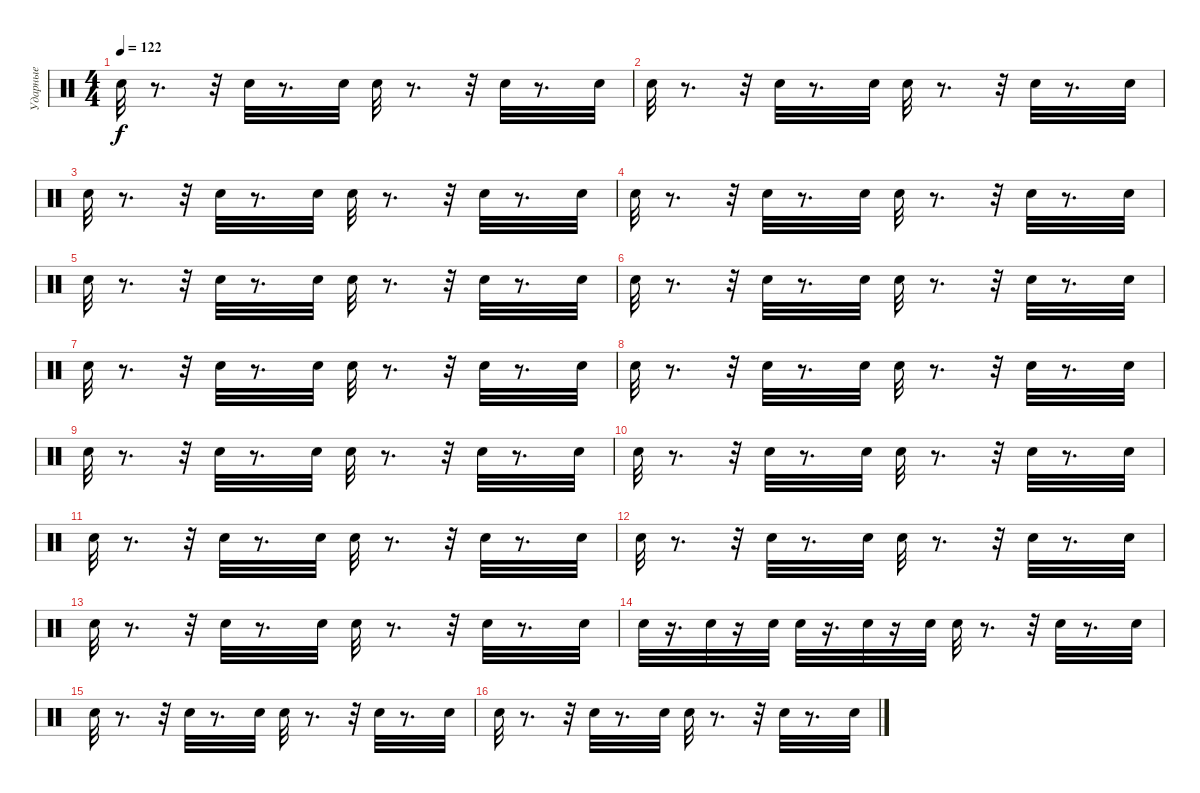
\track ("Ударные" "Ударные") {instrument percussion}
\staff {score}
\articulation defaults
\ts (4 4)
\tempo 122
\clef neutral
\ks c "Snare (hit) 2".32{dy f}
r.8{d} r.32 "Snare (hit) 2".32 r.8{d} "Snare (hit) 2".32 "Snare (hit) 2".32 r.8{d} r.32 "Snare (hit) 2".32 r.8{d} "Snare (hit) 2".32 |
"Snare (hit) 2".32 r.8{d} r.32 "Snare (hit) 2".32 r.8{d} "Snare (hit) 2".32 "Snare (hit) 2".32 r.8{d} r.32 "Snare (hit) 2".32 r.8{d} "Snare (hit) 2".32 |
"Snare (hit) 2".32 r.8{d} r.32 "Snare (hit) 2".32 r.8{d} "Snare (hit) 2".32 "Snare (hit) 2".32 r.8{d} r.32 "Snare (hit) 2".32 r.8{d} "Snare (hit) 2".32 |
"Snare (hit) 2".32 r.8{d} r.32 "Snare (hit) 2".32 r.8{d} "Snare (hit) 2".32 "Snare (hit) 2".32 r.8{d} r.32 "Snare (hit) 2".32 r.8{d} "Snare (hit) 2".32 |
"Snare (hit) 2".32 r.8{d} r.32 "Snare (hit) 2".32 r.8{d} "Snare (hit) 2".32 "Snare (hit) 2".32 r.8{d} r.32 "Snare (hit) 2".32 r.8{d} "Snare (hit) 2".32 |
"Snare (hit) 2".32 r.8{d} r.32 "Snare (hit) 2".32 r.8{d} "Snare (hit) 2".32 "Snare (hit) 2".32 r.8{d} r.32 "Snare (hit) 2".32 r.8{d} "Snare (hit) 2".32 |
"Snare (hit) 2".32 r.8{d} r.32 "Snare (hit) 2".32 r.8{d} "Snare (hit) 2".32 "Snare (hit) 2".32 r.8{d} r.32 "Snare (hit) 2".32 r.8{d} "Snare (hit) 2".32 |
"Snare (hit) 2".32 r.8{d} r.32 "Snare (hit) 2".32 r.8{d} "Snare (hit) 2".32 "Snare (hit) 2".32 r.8{d} r.32 "Snare (hit) 2".32 r.8{d} "Snare (hit) 2".32 |
"Snare (hit) 2".32 r.8{d} r.32 "Snare (hit) 2".32 r.8{d} "Snare (hit) 2".32 "Snare (hit) 2".32 r.8{d} r.32 "Snare (hit) 2".32 r.8{d} "Snare (hit) 2".32 |
"Snare (hit) 2".32 r.8{d} r.32 "Snare (hit) 2".32 r.8{d} "Snare (hit) 2".32 "Snare (hit) 2".32 r.8{d} r.32 "Snare (hit) 2".32 r.8{d} "Snare (hit) 2".32 |
"Snare (hit) 2".32 r.8{d} r.32 "Snare (hit) 2".32 r.8{d} "Snare (hit) 2".32 "Snare (hit) 2".32 r.8{d} r.32 "Snare (hit) 2".32 r.8{d} "Snare (hit) 2".32 |
"Snare (hit) 2".32 r.8{d} r.32 "Snare (hit) 2".32 r.8{d} "Snare (hit) 2".32 "Snare (hit) 2".32 r.8{d} r.32 "Snare (hit) 2".32 r.8{d} "Snare (hit) 2".32 |
"Snare (hit) 2".32 r.8{d} r.32 "Snare (hit) 2".32 r.8{d} "Snare (hit) 2".32 "Snare (hit) 2".32 r.8{d} r.32 "Snare (hit) 2".32 r.8{d} "Snare (hit) 2".32 |
"Snare (hit) 2".32 r.16{d} "Snare (hit) 2".32 r.16 "Snare (hit) 2".32 "Snare (hit) 2".32 r.16{d} "Snare (hit) 2".32 r.16 "Snare (hit) 2".32 "Snare (hit) 2".32 r.8{d} r.32 "Snare (hit) 2".32 r.8{d} "Snare (hit) 2".32 |
"Snare (hit) 2".32 r.8{d} r.32 "Snare (hit) 2".32 r.8{d} "Snare (hit) 2".32 "Snare (hit) 2".32 r.8{d} r.32 "Snare (hit) 2".32 r.8{d} "Snare (hit) 2".32 |
"Snare (hit) 2".32 r.8{d} r.32 "Snare (hit) 2".32 r.8{d} "Snare (hit) 2".32 "Snare (hit) 2".32 r.8{d} r.32 "Snare (hit) 2".32 r.8{d} "Snare (hit) 2".32
